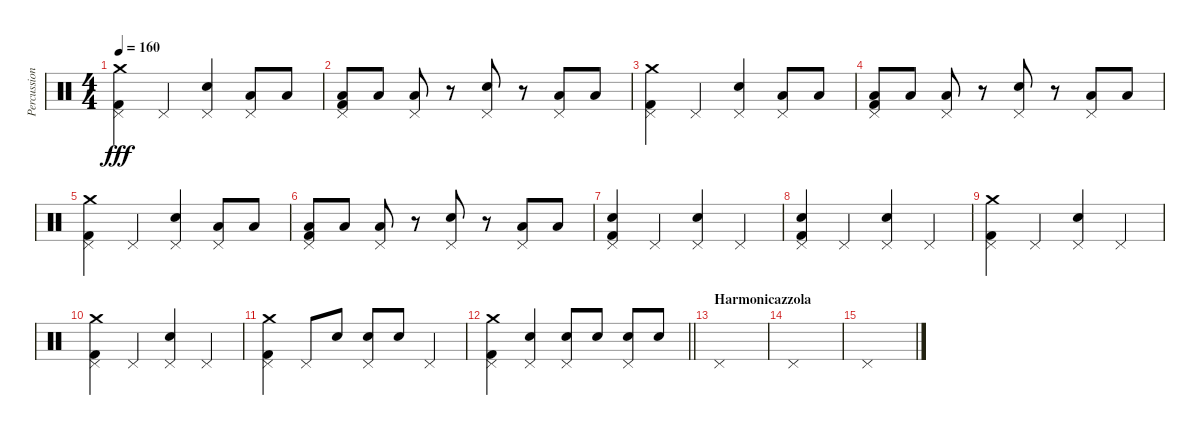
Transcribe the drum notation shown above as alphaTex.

\track ("Percussioni" "Percussion") {instrument percussion}
\staff {score}
\articulation defaults
\ts (4 4)
\tempo 160
\clef neutral
\ks c
("Crash medium (hit)" "Pedal Hi-Hat (hit)" "Kick (hit) 2").4{dy fff} "Pedal Hi-Hat (hit)".4 ("Pedal Hi-Hat (hit)" "Snare (hit) 2").4 ("Pedal Hi-Hat (hit)" "Low Floor Tom (hit)").8 "Low Tom (hit)".8 |
("Pedal Hi-Hat (hit)" "Low Floor Tom (hit)" "Kick (hit) 2").8 "Low Tom (hit)".8 ("Pedal Hi-Hat (hit)" "Low Floor Tom (hit)").8 r.8 ("Pedal Hi-Hat (hit)" "Snare (hit) 2").8 r.8 ("Pedal Hi-Hat (hit)" "Low Tom (hit)").8 "Low Floor Tom (hit)".8 |
("Crash medium (hit)" "Pedal Hi-Hat (hit)" "Kick (hit) 2").4 "Pedal Hi-Hat (hit)".4 ("Pedal Hi-Hat (hit)" "Snare (hit) 2").4 ("Pedal Hi-Hat (hit)" "Low Floor Tom (hit)").8 "Low Tom (hit)".8 |
("Pedal Hi-Hat (hit)" "Low Floor Tom (hit)" "Kick (hit) 2").8 "Low Tom (hit)".8 ("Pedal Hi-Hat (hit)" "Low Floor Tom (hit)").8 r.8 ("Pedal Hi-Hat (hit)" "Snare (hit) 2").8 r.8 ("Pedal Hi-Hat (hit)" "Low Tom (hit)").8 "Low Floor Tom (hit)".8 |
("Crash medium (hit)" "Pedal Hi-Hat (hit)" "Kick (hit) 2").4 "Pedal Hi-Hat (hit)".4 ("Pedal Hi-Hat (hit)" "Snare (hit) 2").4 ("Pedal Hi-Hat (hit)" "Low Floor Tom (hit)").8 "Low Tom (hit)".8 |
("Pedal Hi-Hat (hit)" "Low Floor Tom (hit)" "Kick (hit) 2").8 "Low Tom (hit)".8 ("Pedal Hi-Hat (hit)" "Low Floor Tom (hit)").8 r.8 ("Pedal Hi-Hat (hit)" "Snare (hit) 2").8 r.8 ("Pedal Hi-Hat (hit)" "Low Tom (hit)").8 "Low Floor Tom (hit)".8 |
("Pedal Hi-Hat (hit)" "Snare (hit) 2" "Kick (hit) 2").4 "Pedal Hi-Hat (hit)".4 ("Pedal Hi-Hat (hit)" "Snare (hit) 2").4 "Pedal Hi-Hat (hit)".4 |
("Pedal Hi-Hat (hit)" "Snare (hit) 2" "Kick (hit) 2").4 "Pedal Hi-Hat (hit)".4 ("Pedal Hi-Hat (hit)" "Snare (hit) 2").4 "Pedal Hi-Hat (hit)".4 |
("Crash medium (hit)" "Pedal Hi-Hat (hit)" "Kick (hit) 2").4 "Pedal Hi-Hat (hit)".4 ("Pedal Hi-Hat (hit)" "Snare (hit) 2").4 "Pedal Hi-Hat (hit)".4 |
("Crash medium (hit)" "Pedal Hi-Hat (hit)" "Kick (hit) 2").4 "Pedal Hi-Hat (hit)".4 ("Pedal Hi-Hat (hit)" "Snare (hit) 2").4 "Pedal Hi-Hat (hit)".4 |
("Crash medium (hit)" "Pedal Hi-Hat (hit)" "Kick (hit) 2").4 "Pedal Hi-Hat (hit)".8 "Snare (hit) 2".8 ("Pedal Hi-Hat (hit)" "Snare (hit) 2").8 "Snare (hit) 2".8 "Pedal Hi-Hat (hit)".4 |
\barLineRight lightlight
("Crash medium (hit)" "Pedal Hi-Hat (hit)" "Kick (hit) 2").4 ("Pedal Hi-Hat (hit)" "Snare (hit) 2").4 ("Pedal Hi-Hat (hit)" "Snare (hit) 2").8 "Snare (hit) 2".8 ("Pedal Hi-Hat (hit)" "Snare (hit) 2").8 "Snare (hit) 2".8 |
\section ("" "Harmonicazzola")
"Pedal Hi-Hat (hit)".1 |
"Pedal Hi-Hat (hit)".1 |
"Pedal Hi-Hat (hit)".1
